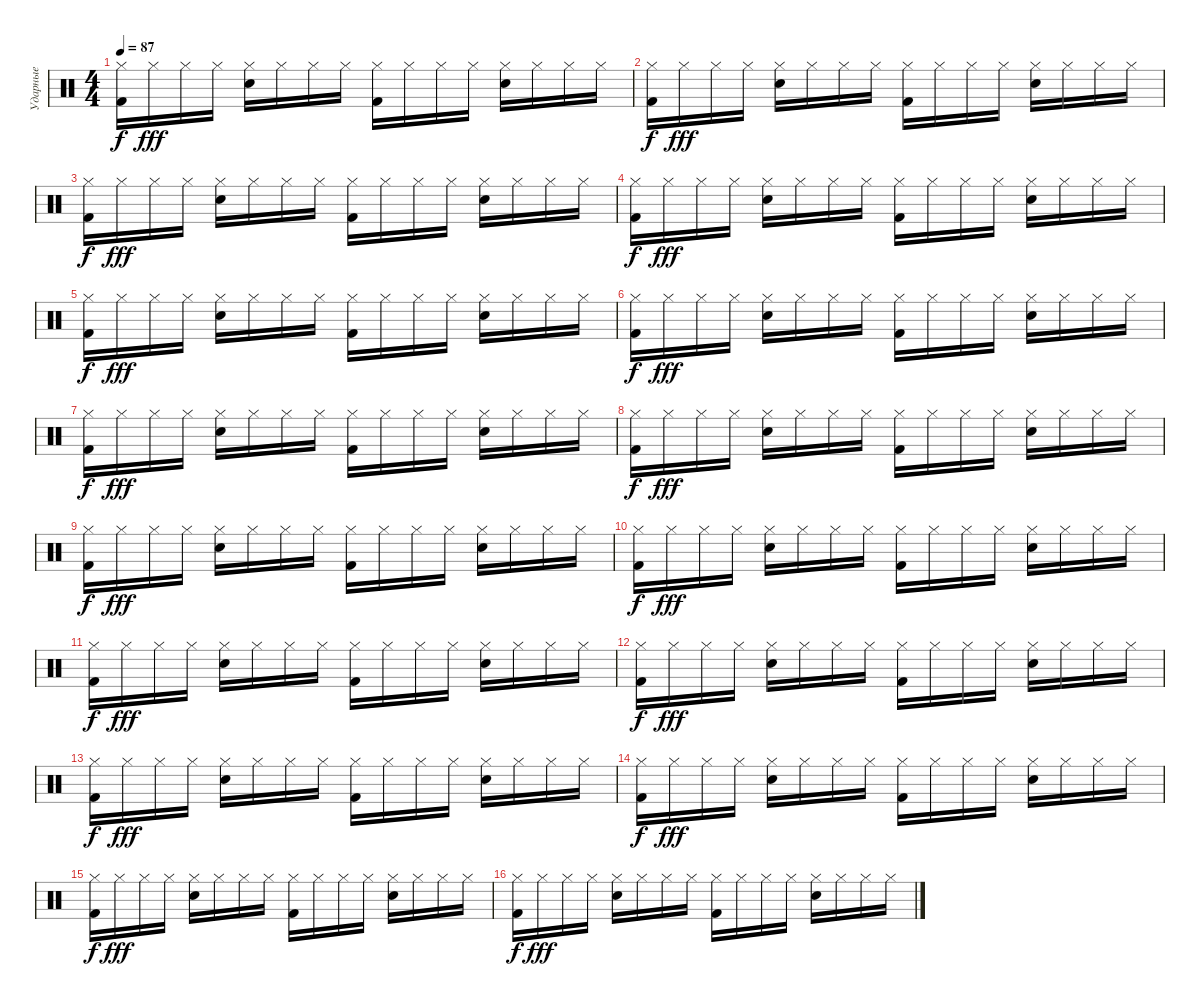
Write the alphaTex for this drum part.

\track ("Ударные" "Ударные") {instrument percussion}
\staff {score}
\articulation defaults
\ts (4 4)
\tempo 87
\clef neutral
\ks c
("Hi-Hat (closed)" "Kick (hit) 2").16{dy f} "Hi-Hat (closed)".16{dy fff} "Hi-Hat (closed)".16 "Hi-Hat (closed)".16 ("Hi-Hat (closed)" "Snare (hit) 2").16 "Hi-Hat (closed)".16 "Hi-Hat (closed)".16 "Hi-Hat (closed)".16 ("Hi-Hat (closed)" "Kick (hit) 2").16 "Hi-Hat (closed)".16 "Hi-Hat (closed)".16 "Hi-Hat (closed)".16 ("Hi-Hat (closed)" "Snare (hit) 2").16 "Hi-Hat (closed)".16 "Hi-Hat (closed)".16 "Hi-Hat (closed)".16 |
("Hi-Hat (closed)" "Kick (hit) 2").16{dy f} "Hi-Hat (closed)".16{dy fff} "Hi-Hat (closed)".16 "Hi-Hat (closed)".16 ("Hi-Hat (closed)" "Snare (hit) 2").16 "Hi-Hat (closed)".16 "Hi-Hat (closed)".16 "Hi-Hat (closed)".16 ("Hi-Hat (closed)" "Kick (hit) 2").16 "Hi-Hat (closed)".16 "Hi-Hat (closed)".16 "Hi-Hat (closed)".16 ("Hi-Hat (closed)" "Snare (hit) 2").16 "Hi-Hat (closed)".16 "Hi-Hat (closed)".16 "Hi-Hat (closed)".16 |
("Hi-Hat (closed)" "Kick (hit) 2").16{dy f} "Hi-Hat (closed)".16{dy fff} "Hi-Hat (closed)".16 "Hi-Hat (closed)".16 ("Hi-Hat (closed)" "Snare (hit) 2").16 "Hi-Hat (closed)".16 "Hi-Hat (closed)".16 "Hi-Hat (closed)".16 ("Hi-Hat (closed)" "Kick (hit) 2").16 "Hi-Hat (closed)".16 "Hi-Hat (closed)".16 "Hi-Hat (closed)".16 ("Hi-Hat (closed)" "Snare (hit) 2").16 "Hi-Hat (closed)".16 "Hi-Hat (closed)".16 "Hi-Hat (closed)".16 |
("Hi-Hat (closed)" "Kick (hit) 2").16{dy f} "Hi-Hat (closed)".16{dy fff} "Hi-Hat (closed)".16 "Hi-Hat (closed)".16 ("Hi-Hat (closed)" "Snare (hit) 2").16 "Hi-Hat (closed)".16 "Hi-Hat (closed)".16 "Hi-Hat (closed)".16 ("Hi-Hat (closed)" "Kick (hit) 2").16 "Hi-Hat (closed)".16 "Hi-Hat (closed)".16 "Hi-Hat (closed)".16 ("Hi-Hat (closed)" "Snare (hit) 2").16 "Hi-Hat (closed)".16 "Hi-Hat (closed)".16 "Hi-Hat (closed)".16 |
("Hi-Hat (closed)" "Kick (hit) 2").16{dy f} "Hi-Hat (closed)".16{dy fff} "Hi-Hat (closed)".16 "Hi-Hat (closed)".16 ("Hi-Hat (closed)" "Snare (hit) 2").16 "Hi-Hat (closed)".16 "Hi-Hat (closed)".16 "Hi-Hat (closed)".16 ("Hi-Hat (closed)" "Kick (hit) 2").16 "Hi-Hat (closed)".16 "Hi-Hat (closed)".16 "Hi-Hat (closed)".16 ("Hi-Hat (closed)" "Snare (hit) 2").16 "Hi-Hat (closed)".16 "Hi-Hat (closed)".16 "Hi-Hat (closed)".16 |
("Hi-Hat (closed)" "Kick (hit) 2").16{dy f} "Hi-Hat (closed)".16{dy fff} "Hi-Hat (closed)".16 "Hi-Hat (closed)".16 ("Hi-Hat (closed)" "Snare (hit) 2").16 "Hi-Hat (closed)".16 "Hi-Hat (closed)".16 "Hi-Hat (closed)".16 ("Hi-Hat (closed)" "Kick (hit) 2").16 "Hi-Hat (closed)".16 "Hi-Hat (closed)".16 "Hi-Hat (closed)".16 ("Hi-Hat (closed)" "Snare (hit) 2").16 "Hi-Hat (closed)".16 "Hi-Hat (closed)".16 "Hi-Hat (closed)".16 |
("Hi-Hat (closed)" "Kick (hit) 2").16{dy f} "Hi-Hat (closed)".16{dy fff} "Hi-Hat (closed)".16 "Hi-Hat (closed)".16 ("Hi-Hat (closed)" "Snare (hit) 2").16 "Hi-Hat (closed)".16 "Hi-Hat (closed)".16 "Hi-Hat (closed)".16 ("Hi-Hat (closed)" "Kick (hit) 2").16 "Hi-Hat (closed)".16 "Hi-Hat (closed)".16 "Hi-Hat (closed)".16 ("Hi-Hat (closed)" "Snare (hit) 2").16 "Hi-Hat (closed)".16 "Hi-Hat (closed)".16 "Hi-Hat (closed)".16 |
("Hi-Hat (closed)" "Kick (hit) 2").16{dy f} "Hi-Hat (closed)".16{dy fff} "Hi-Hat (closed)".16 "Hi-Hat (closed)".16 ("Hi-Hat (closed)" "Snare (hit) 2").16 "Hi-Hat (closed)".16 "Hi-Hat (closed)".16 "Hi-Hat (closed)".16 ("Hi-Hat (closed)" "Kick (hit) 2").16 "Hi-Hat (closed)".16 "Hi-Hat (closed)".16 "Hi-Hat (closed)".16 ("Hi-Hat (closed)" "Snare (hit) 2").16 "Hi-Hat (closed)".16 "Hi-Hat (closed)".16 "Hi-Hat (closed)".16 |
("Hi-Hat (closed)" "Kick (hit) 2").16{dy f} "Hi-Hat (closed)".16{dy fff} "Hi-Hat (closed)".16 "Hi-Hat (closed)".16 ("Hi-Hat (closed)" "Snare (hit) 2").16 "Hi-Hat (closed)".16 "Hi-Hat (closed)".16 "Hi-Hat (closed)".16 ("Hi-Hat (closed)" "Kick (hit) 2").16 "Hi-Hat (closed)".16 "Hi-Hat (closed)".16 "Hi-Hat (closed)".16 ("Hi-Hat (closed)" "Snare (hit) 2").16 "Hi-Hat (closed)".16 "Hi-Hat (closed)".16 "Hi-Hat (closed)".16 |
("Hi-Hat (closed)" "Kick (hit) 2").16{dy f} "Hi-Hat (closed)".16{dy fff} "Hi-Hat (closed)".16 "Hi-Hat (closed)".16 ("Hi-Hat (closed)" "Snare (hit) 2").16 "Hi-Hat (closed)".16 "Hi-Hat (closed)".16 "Hi-Hat (closed)".16 ("Hi-Hat (closed)" "Kick (hit) 2").16 "Hi-Hat (closed)".16 "Hi-Hat (closed)".16 "Hi-Hat (closed)".16 ("Hi-Hat (closed)" "Snare (hit) 2").16 "Hi-Hat (closed)".16 "Hi-Hat (closed)".16 "Hi-Hat (closed)".16 |
("Hi-Hat (closed)" "Kick (hit) 2").16{dy f} "Hi-Hat (closed)".16{dy fff} "Hi-Hat (closed)".16 "Hi-Hat (closed)".16 ("Hi-Hat (closed)" "Snare (hit) 2").16 "Hi-Hat (closed)".16 "Hi-Hat (closed)".16 "Hi-Hat (closed)".16 ("Hi-Hat (closed)" "Kick (hit) 2").16 "Hi-Hat (closed)".16 "Hi-Hat (closed)".16 "Hi-Hat (closed)".16 ("Hi-Hat (closed)" "Snare (hit) 2").16 "Hi-Hat (closed)".16 "Hi-Hat (closed)".16 "Hi-Hat (closed)".16 |
("Hi-Hat (closed)" "Kick (hit) 2").16{dy f} "Hi-Hat (closed)".16{dy fff} "Hi-Hat (closed)".16 "Hi-Hat (closed)".16 ("Hi-Hat (closed)" "Snare (hit) 2").16 "Hi-Hat (closed)".16 "Hi-Hat (closed)".16 "Hi-Hat (closed)".16 ("Hi-Hat (closed)" "Kick (hit) 2").16 "Hi-Hat (closed)".16 "Hi-Hat (closed)".16 "Hi-Hat (closed)".16 ("Hi-Hat (closed)" "Snare (hit) 2").16 "Hi-Hat (closed)".16 "Hi-Hat (closed)".16 "Hi-Hat (closed)".16 |
("Hi-Hat (closed)" "Kick (hit) 2").16{dy f} "Hi-Hat (closed)".16{dy fff} "Hi-Hat (closed)".16 "Hi-Hat (closed)".16 ("Hi-Hat (closed)" "Snare (hit) 2").16 "Hi-Hat (closed)".16 "Hi-Hat (closed)".16 "Hi-Hat (closed)".16 ("Hi-Hat (closed)" "Kick (hit) 2").16 "Hi-Hat (closed)".16 "Hi-Hat (closed)".16 "Hi-Hat (closed)".16 ("Hi-Hat (closed)" "Snare (hit) 2").16 "Hi-Hat (closed)".16 "Hi-Hat (closed)".16 "Hi-Hat (closed)".16 |
("Hi-Hat (closed)" "Kick (hit) 2").16{dy f} "Hi-Hat (closed)".16{dy fff} "Hi-Hat (closed)".16 "Hi-Hat (closed)".16 ("Hi-Hat (closed)" "Snare (hit) 2").16 "Hi-Hat (closed)".16 "Hi-Hat (closed)".16 "Hi-Hat (closed)".16 ("Hi-Hat (closed)" "Kick (hit) 2").16 "Hi-Hat (closed)".16 "Hi-Hat (closed)".16 "Hi-Hat (closed)".16 ("Hi-Hat (closed)" "Snare (hit) 2").16 "Hi-Hat (closed)".16 "Hi-Hat (closed)".16 "Hi-Hat (closed)".16 |
("Hi-Hat (closed)" "Kick (hit) 2").16{dy f} "Hi-Hat (closed)".16{dy fff} "Hi-Hat (closed)".16 "Hi-Hat (closed)".16 ("Hi-Hat (closed)" "Snare (hit) 2").16 "Hi-Hat (closed)".16 "Hi-Hat (closed)".16 "Hi-Hat (closed)".16 ("Hi-Hat (closed)" "Kick (hit) 2").16 "Hi-Hat (closed)".16 "Hi-Hat (closed)".16 "Hi-Hat (closed)".16 ("Hi-Hat (closed)" "Snare (hit) 2").16 "Hi-Hat (closed)".16 "Hi-Hat (closed)".16 "Hi-Hat (closed)".16 |
("Hi-Hat (closed)" "Kick (hit) 2").16{dy f} "Hi-Hat (closed)".16{dy fff} "Hi-Hat (closed)".16 "Hi-Hat (closed)".16 ("Hi-Hat (closed)" "Snare (hit) 2").16 "Hi-Hat (closed)".16 "Hi-Hat (closed)".16 "Hi-Hat (closed)".16 ("Hi-Hat (closed)" "Kick (hit) 2").16 "Hi-Hat (closed)".16 "Hi-Hat (closed)".16 "Hi-Hat (closed)".16 ("Hi-Hat (closed)" "Snare (hit) 2").16 "Hi-Hat (closed)".16 "Hi-Hat (closed)".16 "Hi-Hat (closed)".16
